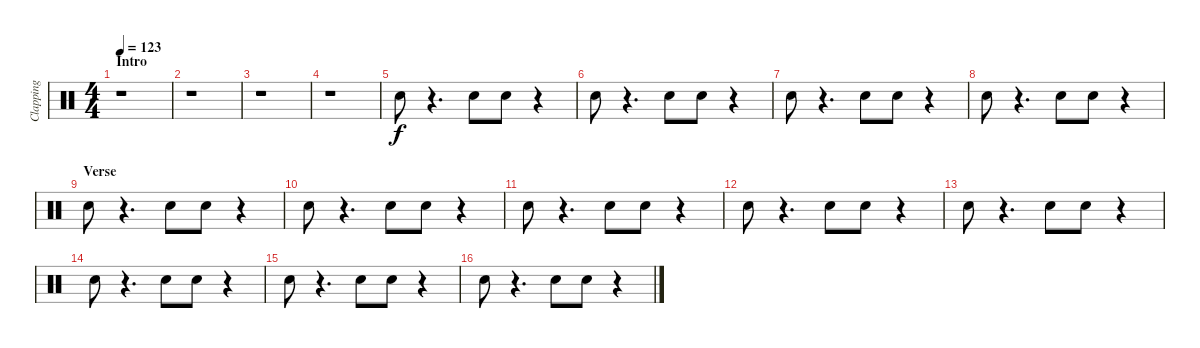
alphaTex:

\track ("Clapping" "Clapping") {instrument percussion}
\staff {score}
\articulation defaults
\ts (4 4)
\section ("" "Intro")
\tempo 123
\clef neutral
\ks c
r.1{dy f} |
r.1 |
r.1 |
r.1 |
"Hand Clap (hit)".8 r.4{d} "Hand Clap (hit)".8 "Hand Clap (hit)".8 r.4 |
"Hand Clap (hit)".8 r.4{d} "Hand Clap (hit)".8 "Hand Clap (hit)".8 r.4 |
"Hand Clap (hit)".8 r.4{d} "Hand Clap (hit)".8 "Hand Clap (hit)".8 r.4 |
"Hand Clap (hit)".8 r.4{d} "Hand Clap (hit)".8 "Hand Clap (hit)".8 r.4 |
\section ("" "Verse")
"Hand Clap (hit)".8 r.4{d} "Hand Clap (hit)".8 "Hand Clap (hit)".8 r.4 |
"Hand Clap (hit)".8 r.4{d} "Hand Clap (hit)".8 "Hand Clap (hit)".8 r.4 |
"Hand Clap (hit)".8 r.4{d} "Hand Clap (hit)".8 "Hand Clap (hit)".8 r.4 |
"Hand Clap (hit)".8 r.4{d} "Hand Clap (hit)".8 "Hand Clap (hit)".8 r.4 |
"Hand Clap (hit)".8 r.4{d} "Hand Clap (hit)".8 "Hand Clap (hit)".8 r.4 |
"Hand Clap (hit)".8 r.4{d} "Hand Clap (hit)".8 "Hand Clap (hit)".8 r.4 |
"Hand Clap (hit)".8 r.4{d} "Hand Clap (hit)".8 "Hand Clap (hit)".8 r.4 |
"Hand Clap (hit)".8 r.4{d} "Hand Clap (hit)".8 "Hand Clap (hit)".8 r.4
